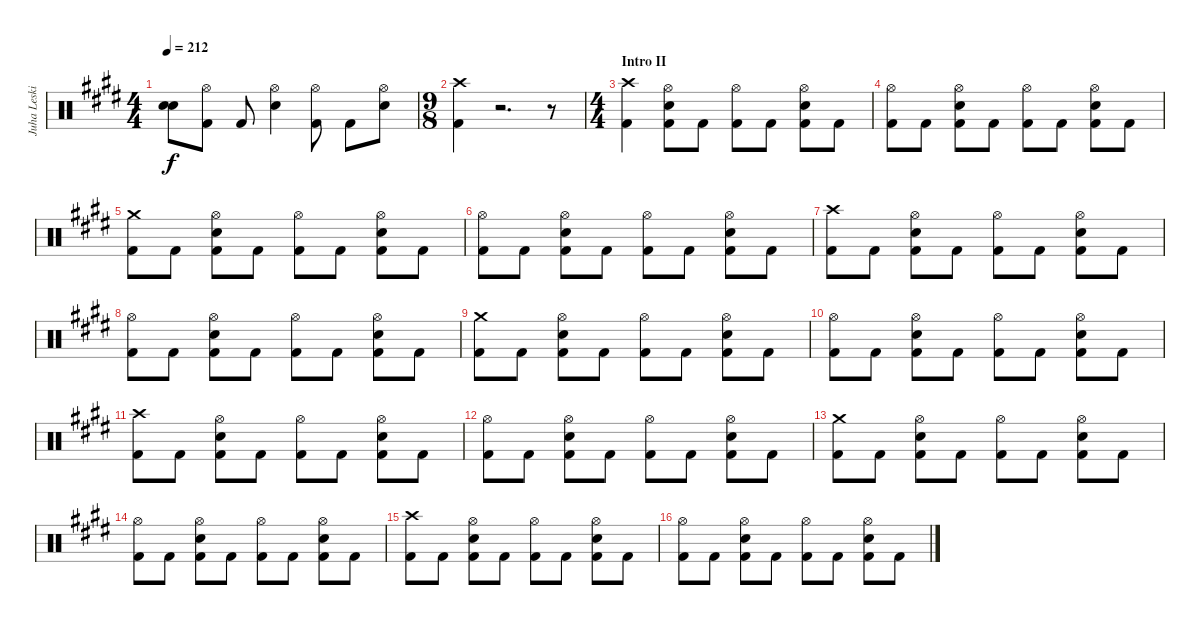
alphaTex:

\track ("Juha Leskinen - Drums" "Juha Leski") {instrument percussion}
\staff {score}
\articulation defaults
\ts (4 4)
\tempo 212
\clef neutral
\ks c#minor
("Snare (hit)"{t} "Snare (hit)"{t}).8{dy f} ("Hi-Hat (open)" "Kick (hit) 2").8 "Kick (hit) 2".8 ("Hi-Hat (open)" "Electric Snare (hit)").4 ("Hi-Hat (open)" "Kick (hit) 2").8 "Kick (hit) 2".8 ("Hi-Hat (open)" "Electric Snare (hit)").8 |
\ts (9 8)
("Crash high (hit)" "Kick (hit) 2").4 r.2{d} r.8 |
\ts (4 4)
\section ("" "Intro II")
("Crash high (hit)" "Kick (hit) 2").4 ("Hi-Hat (open)" "Electric Snare (hit)" "Kick (hit) 2").8 "Kick (hit) 2".8 ("Hi-Hat (open)" "Kick (hit) 2").8 "Kick (hit) 2".8 ("Hi-Hat (open)" "Electric Snare (hit)" "Kick (hit) 2").8 "Kick (hit) 2".8 |
("Hi-Hat (open)" "Kick (hit) 2").8 "Kick (hit) 2".8 ("Hi-Hat (open)" "Electric Snare (hit)" "Kick (hit) 2").8 "Kick (hit) 2".8 ("Hi-Hat (open)" "Kick (hit) 2").8 "Kick (hit) 2".8 ("Hi-Hat (open)" "Electric Snare (hit)" "Kick (hit) 2").8 "Kick (hit) 2".8 |
("Crash medium (hit)" "Kick (hit) 2").8 "Kick (hit) 2".8 ("Hi-Hat (open)" "Electric Snare (hit)" "Kick (hit) 2").8 "Kick (hit) 2".8 ("Hi-Hat (open)" "Kick (hit) 2").8 "Kick (hit) 2".8 ("Hi-Hat (open)" "Electric Snare (hit)" "Kick (hit) 2").8 "Kick (hit) 2".8 |
("Hi-Hat (open)" "Kick (hit) 2").8 "Kick (hit) 2".8 ("Hi-Hat (open)" "Electric Snare (hit)" "Kick (hit) 2").8 "Kick (hit) 2".8 ("Hi-Hat (open)" "Kick (hit) 2").8 "Kick (hit) 2".8 ("Hi-Hat (open)" "Electric Snare (hit)" "Kick (hit) 2").8 "Kick (hit) 2".8 |
("Crash high (hit)" "Kick (hit) 2").8 "Kick (hit) 2".8 ("Hi-Hat (open)" "Electric Snare (hit)" "Kick (hit) 2").8 "Kick (hit) 2".8 ("Hi-Hat (open)" "Kick (hit) 2").8 "Kick (hit) 2".8 ("Hi-Hat (open)" "Electric Snare (hit)" "Kick (hit) 2").8 "Kick (hit) 2".8 |
("Hi-Hat (open)" "Kick (hit) 2").8 "Kick (hit) 2".8 ("Hi-Hat (open)" "Electric Snare (hit)" "Kick (hit) 2").8 "Kick (hit) 2".8 ("Hi-Hat (open)" "Kick (hit) 2").8 "Kick (hit) 2".8 ("Hi-Hat (open)" "Electric Snare (hit)" "Kick (hit) 2").8 "Kick (hit) 2".8 |
("Crash medium (hit)" "Kick (hit) 2").8 "Kick (hit) 2".8 ("Hi-Hat (open)" "Electric Snare (hit)" "Kick (hit) 2").8 "Kick (hit) 2".8 ("Hi-Hat (open)" "Kick (hit) 2").8 "Kick (hit) 2".8 ("Hi-Hat (open)" "Electric Snare (hit)" "Kick (hit) 2").8 "Kick (hit) 2".8 |
("Hi-Hat (open)" "Kick (hit) 2").8 "Kick (hit) 2".8 ("Hi-Hat (open)" "Electric Snare (hit)" "Kick (hit) 2").8 "Kick (hit) 2".8 ("Hi-Hat (open)" "Kick (hit) 2").8 "Kick (hit) 2".8 ("Hi-Hat (open)" "Electric Snare (hit)" "Kick (hit) 2").8 "Kick (hit) 2".8 |
("Crash high (hit)" "Kick (hit) 2").8 "Kick (hit) 2".8 ("Hi-Hat (open)" "Electric Snare (hit)" "Kick (hit) 2").8 "Kick (hit) 2".8 ("Hi-Hat (open)" "Kick (hit) 2").8 "Kick (hit) 2".8 ("Hi-Hat (open)" "Electric Snare (hit)" "Kick (hit) 2").8 "Kick (hit) 2".8 |
("Hi-Hat (open)" "Kick (hit) 2").8 "Kick (hit) 2".8 ("Hi-Hat (open)" "Electric Snare (hit)" "Kick (hit) 2").8 "Kick (hit) 2".8 ("Hi-Hat (open)" "Kick (hit) 2").8 "Kick (hit) 2".8 ("Hi-Hat (open)" "Electric Snare (hit)" "Kick (hit) 2").8 "Kick (hit) 2".8 |
("Crash medium (hit)" "Kick (hit) 2").8 "Kick (hit) 2".8 ("Hi-Hat (open)" "Electric Snare (hit)" "Kick (hit) 2").8 "Kick (hit) 2".8 ("Hi-Hat (open)" "Kick (hit) 2").8 "Kick (hit) 2".8 ("Hi-Hat (open)" "Electric Snare (hit)" "Kick (hit) 2").8 "Kick (hit) 2".8 |
("Hi-Hat (open)" "Kick (hit) 2").8 "Kick (hit) 2".8 ("Hi-Hat (open)" "Electric Snare (hit)" "Kick (hit) 2").8 "Kick (hit) 2".8 ("Hi-Hat (open)" "Kick (hit) 2").8 "Kick (hit) 2".8 ("Hi-Hat (open)" "Electric Snare (hit)" "Kick (hit) 2").8 "Kick (hit) 2".8 |
("Crash high (hit)" "Kick (hit) 2").8 "Kick (hit) 2".8 ("Hi-Hat (open)" "Electric Snare (hit)" "Kick (hit) 2").8 "Kick (hit) 2".8 ("Hi-Hat (open)" "Kick (hit) 2").8 "Kick (hit) 2".8 ("Hi-Hat (open)" "Electric Snare (hit)" "Kick (hit) 2").8 "Kick (hit) 2".8 |
("Hi-Hat (open)" "Kick (hit) 2").8 "Kick (hit) 2".8 ("Hi-Hat (open)" "Electric Snare (hit)" "Kick (hit) 2").8 "Kick (hit) 2".8 ("Hi-Hat (open)" "Kick (hit) 2").8 "Kick (hit) 2".8 ("Hi-Hat (open)" "Electric Snare (hit)" "Kick (hit) 2").8 "Kick (hit) 2".8
